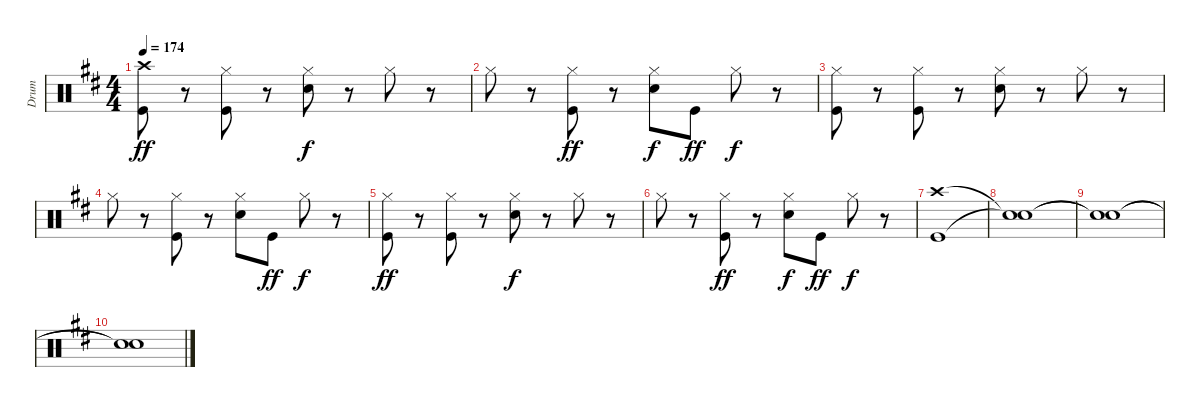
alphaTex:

\track ("Drum" "Drum") {instrument percussion}
\staff {score}
\articulation defaults
\ts (4 4)
\tempo 174
\clef neutral
\ks d
("Crash high (hit)" "Kick (hit)").8{dy ff} r.8 ("Hi-Hat (closed)" "Kick (hit)").8 r.8 ("Hi-Hat (closed)" "Snare (hit) 2").8{dy f} r.8 "Hi-Hat (closed)".8 r.8 |
"Hi-Hat (closed)".8 r.8 ("Hi-Hat (closed)" "Kick (hit)").8{dy ff} r.8 ("Hi-Hat (closed)" "Snare (hit) 2").8{dy f} "Kick (hit)".8{dy ff} "Hi-Hat (closed)".8{dy f} r.8 |
("Hi-Hat (closed)" "Kick (hit)").8 r.8 ("Hi-Hat (closed)" "Kick (hit)").8 r.8 ("Hi-Hat (closed)" "Snare (hit) 2").8 r.8 "Hi-Hat (closed)".8 r.8 |
"Hi-Hat (closed)".8 r.8 ("Hi-Hat (closed)" "Kick (hit)").8 r.8 ("Hi-Hat (closed)" "Snare (hit) 2").8 "Kick (hit)".8{dy ff} "Hi-Hat (closed)".8{dy f} r.8 |
("Hi-Hat (closed)" "Kick (hit)").8{dy ff} r.8 ("Hi-Hat (closed)" "Kick (hit)").8 r.8 ("Hi-Hat (closed)" "Snare (hit) 2").8{dy f} r.8 "Hi-Hat (closed)".8 r.8 |
"Hi-Hat (closed)".8 r.8 ("Hi-Hat (closed)" "Kick (hit)").8{dy ff} r.8 ("Hi-Hat (closed)" "Snare (hit) 2").8{dy f} "Kick (hit)".8{dy ff} "Hi-Hat (closed)".8{dy f} r.8 |
("Crash high (hit)" "Kick (hit)").1 |
("Snare (hit)"{t} "Snare (hit)"{t}).1 |
("Snare (hit)"{t} "Snare (hit)"{t}).1 |
("Snare (hit)"{t} "Snare (hit)"{t}).1
